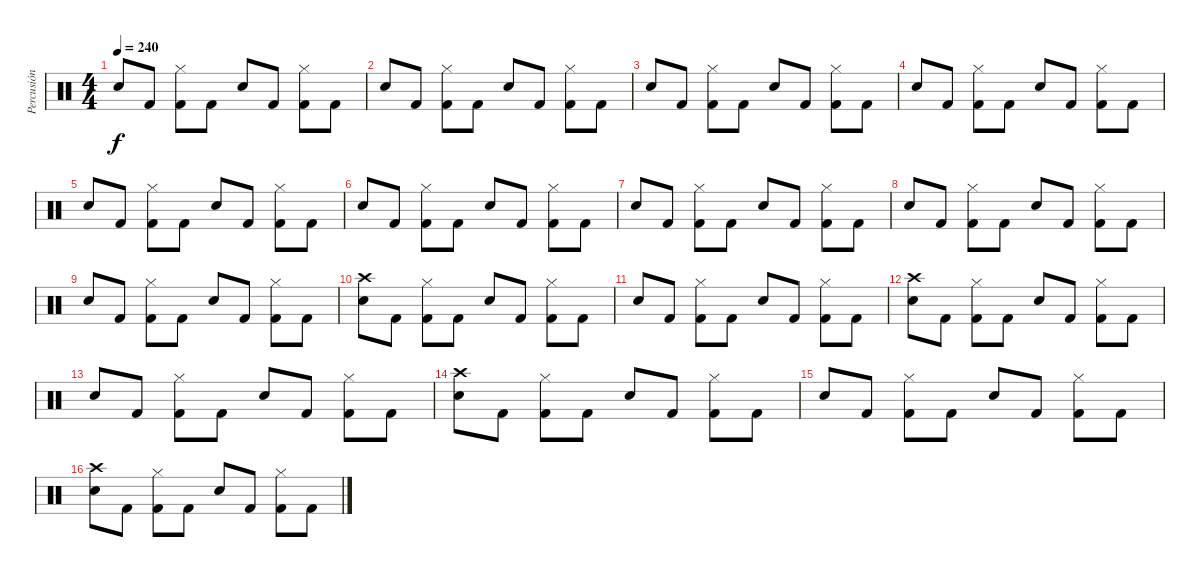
\track ("Percusión" "Percusión") {instrument percussion}
\staff {score}
\articulation defaults
\ts (4 4)
\tempo 240
\clef neutral
\ks c "Snare (hit) 2".8{dy f} "Kick (hit) 2".8
("Kick (hit) 2" "Hi-Hat (closed)").8 "Kick (hit) 2".8 "Snare (hit) 2".8 "Kick (hit) 2".8 ("Kick (hit) 2" "Hi-Hat (closed)").8 "Kick (hit) 2".8 |
"Snare (hit) 2".8 "Kick (hit) 2".8 ("Kick (hit) 2" "Hi-Hat (closed)").8 "Kick (hit) 2".8 "Snare (hit) 2".8 "Kick (hit) 2".8 ("Kick (hit) 2" "Hi-Hat (closed)").8 "Kick (hit) 2".8 |
"Snare (hit) 2".8 "Kick (hit) 2".8 ("Kick (hit) 2" "Hi-Hat (closed)").8 "Kick (hit) 2".8 "Snare (hit) 2".8 "Kick (hit) 2".8 ("Kick (hit) 2" "Hi-Hat (closed)").8 "Kick (hit) 2".8 |
"Snare (hit) 2".8 "Kick (hit) 2".8 ("Kick (hit) 2" "Hi-Hat (closed)").8 "Kick (hit) 2".8 "Snare (hit) 2".8 "Kick (hit) 2".8 ("Kick (hit) 2" "Hi-Hat (closed)").8 "Kick (hit) 2".8 |
"Snare (hit) 2".8 "Kick (hit) 2".8 ("Kick (hit) 2" "Hi-Hat (closed)").8 "Kick (hit) 2".8 "Snare (hit) 2".8 "Kick (hit) 2".8 ("Kick (hit) 2" "Hi-Hat (closed)").8 "Kick (hit) 2".8 |
"Snare (hit) 2".8 "Kick (hit) 2".8 ("Kick (hit) 2" "Hi-Hat (closed)").8 "Kick (hit) 2".8 "Snare (hit) 2".8 "Kick (hit) 2".8 ("Kick (hit) 2" "Hi-Hat (closed)").8 "Kick (hit) 2".8 |
"Snare (hit) 2".8 "Kick (hit) 2".8 ("Kick (hit) 2" "Hi-Hat (closed)").8 "Kick (hit) 2".8 "Snare (hit) 2".8 "Kick (hit) 2".8 ("Kick (hit) 2" "Hi-Hat (closed)").8 "Kick (hit) 2".8 |
"Snare (hit) 2".8 "Kick (hit) 2".8 ("Kick (hit) 2" "Hi-Hat (closed)").8 "Kick (hit) 2".8 "Snare (hit) 2".8 "Kick (hit) 2".8 ("Kick (hit) 2" "Hi-Hat (closed)").8 "Kick (hit) 2".8 |
"Snare (hit) 2".8 "Kick (hit) 2".8 ("Kick (hit) 2" "Hi-Hat (closed)").8 "Kick (hit) 2".8 "Snare (hit) 2".8 "Kick (hit) 2".8 ("Kick (hit) 2" "Hi-Hat (closed)").8 "Kick (hit) 2".8 |
("Snare (hit) 2" "Crash high (hit)").8 "Kick (hit) 2".8 ("Kick (hit) 2" "Hi-Hat (closed)").8 "Kick (hit) 2".8 "Snare (hit) 2".8 "Kick (hit) 2".8 ("Kick (hit) 2" "Hi-Hat (closed)").8 "Kick (hit) 2".8 |
"Snare (hit) 2".8 "Kick (hit) 2".8 ("Kick (hit) 2" "Hi-Hat (closed)").8 "Kick (hit) 2".8 "Snare (hit) 2".8 "Kick (hit) 2".8 ("Kick (hit) 2" "Hi-Hat (closed)").8 "Kick (hit) 2".8 |
("Snare (hit) 2" "Crash high (hit)").8 "Kick (hit) 2".8 ("Kick (hit) 2" "Hi-Hat (closed)").8 "Kick (hit) 2".8 "Snare (hit) 2".8 "Kick (hit) 2".8 ("Kick (hit) 2" "Hi-Hat (closed)").8 "Kick (hit) 2".8 |
"Snare (hit) 2".8 "Kick (hit) 2".8 ("Kick (hit) 2" "Hi-Hat (closed)").8 "Kick (hit) 2".8 "Snare (hit) 2".8 "Kick (hit) 2".8 ("Kick (hit) 2" "Hi-Hat (closed)").8 "Kick (hit) 2".8 |
("Snare (hit) 2" "Crash high (hit)").8 "Kick (hit) 2".8 ("Kick (hit) 2" "Hi-Hat (closed)").8 "Kick (hit) 2".8 "Snare (hit) 2".8 "Kick (hit) 2".8 ("Kick (hit) 2" "Hi-Hat (closed)").8 "Kick (hit) 2".8 |
"Snare (hit) 2".8 "Kick (hit) 2".8 ("Kick (hit) 2" "Hi-Hat (closed)").8 "Kick (hit) 2".8 "Snare (hit) 2".8 "Kick (hit) 2".8 ("Kick (hit) 2" "Hi-Hat (closed)").8 "Kick (hit) 2".8 |
("Snare (hit) 2" "Crash high (hit)").8 "Kick (hit) 2".8 ("Kick (hit) 2" "Hi-Hat (closed)").8 "Kick (hit) 2".8 "Snare (hit) 2".8 "Kick (hit) 2".8 ("Kick (hit) 2" "Hi-Hat (closed)").8 "Kick (hit) 2".8
